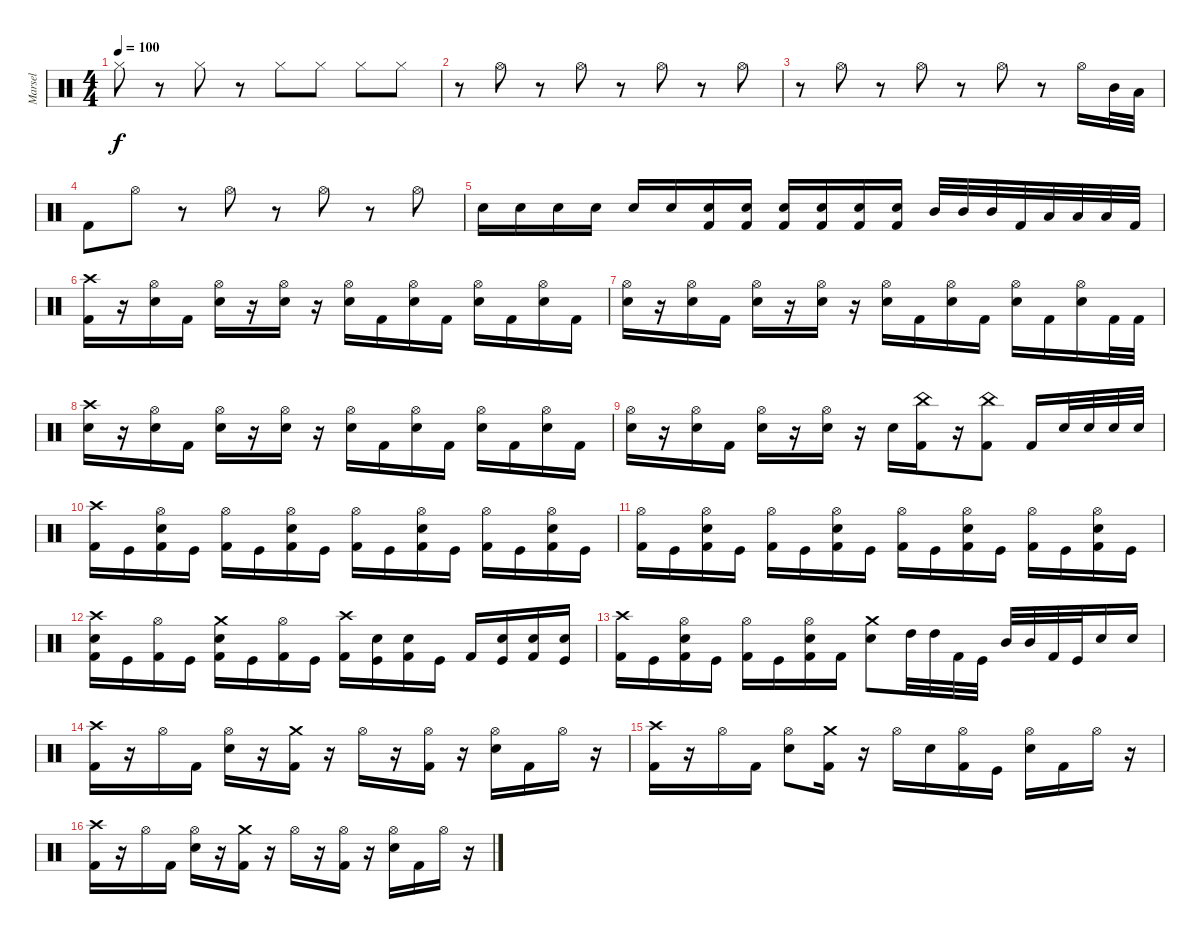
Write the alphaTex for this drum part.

\track ("Marsel" "Marsel") {instrument percussion}
\staff {score}
\articulation defaults
\ts (4 4)
\tempo 100
\clef neutral
\ks c "Hi-Hat (closed)".8{dy f}
r.8 "Hi-Hat (closed)".8 r.8 "Hi-Hat (closed)".8 "Hi-Hat (closed)".8 "Hi-Hat (closed)".8 "Hi-Hat (closed)".8 |
r.8 "Hi-Hat (open)".8 r.8 "Hi-Hat (open)".8 r.8 "Hi-Hat (open)".8 r.8 "Hi-Hat (open)".8 |
r.8 "Hi-Hat (open)".8 r.8 "Hi-Hat (open)".8 r.8 "Hi-Hat (open)".8 r.8 "Hi-Hat (open)".16 "Mid Tom (hit)".32 "Low Floor Tom (hit)".32 |
"Kick (hit) 2".8 "Hi-Hat (open)".8 r.8 "Hi-Hat (open)".8 r.8 "Hi-Hat (open)".8 r.8 "Hi-Hat (open)".8 |
"Snare (hit) 2".16 "Snare (hit) 2".16 "Snare (hit) 2".16 "Snare (hit) 2".16 "Snare (hit) 2".16 "Snare (hit) 2".16 ("Snare (hit) 2" "Kick (hit) 2").16 ("Snare (hit) 2" "Kick (hit) 2").16 ("Snare (hit) 2" "Kick (hit) 2").16 ("Snare (hit) 2" "Kick (hit) 2").16 ("Snare (hit) 2" "Kick (hit) 2").16 ("Snare (hit) 2" "Kick (hit) 2").16 "Mid Tom (hit)".32 "Mid Tom (hit)".32 "Mid Tom (hit)".32 "Kick (hit) 2".32 "Low Tom (hit)".32 "Low Tom (hit)".32 "Low Tom (hit)".32 "Kick (hit) 2".32 |
("Crash high (hit)" "Kick (hit) 2").16 r.16 ("Hi-Hat (open)" "Snare (hit) 2").16 "Kick (hit) 2".16 ("Hi-Hat (open)" "Snare (hit) 2").16 r.16 ("Hi-Hat (open)" "Snare (hit) 2").16 r.16 ("Hi-Hat (open)" "Snare (hit) 2").16 "Kick (hit) 2".16 ("Hi-Hat (open)" "Snare (hit) 2").16 "Kick (hit) 2".16 ("Hi-Hat (open)" "Snare (hit) 2").16 "Kick (hit) 2".16 ("Hi-Hat (open)" "Snare (hit) 2").16 "Kick (hit) 2".16 |
("Hi-Hat (open)" "Snare (hit) 2").16 r.16 ("Hi-Hat (open)" "Snare (hit) 2").16 "Kick (hit) 2".16 ("Hi-Hat (open)" "Snare (hit) 2").16 r.16 ("Hi-Hat (open)" "Snare (hit) 2").16 r.16 ("Hi-Hat (open)" "Snare (hit) 2").16 "Kick (hit) 2".16 ("Hi-Hat (open)" "Snare (hit) 2").16 "Kick (hit) 2".16 ("Hi-Hat (open)" "Snare (hit) 2").16 "Kick (hit) 2".16 ("Hi-Hat (open)" "Snare (hit) 2").16 "Kick (hit) 2".32 "Kick (hit) 2".32 |
("Crash high (hit)" "Snare (hit) 2").16 r.16 ("Hi-Hat (open)" "Snare (hit) 2").16 "Kick (hit) 2".16 ("Hi-Hat (open)" "Snare (hit) 2").16 r.16 ("Hi-Hat (open)" "Snare (hit) 2").16 r.16 ("Hi-Hat (open)" "Snare (hit) 2").16 "Kick (hit) 2".16 ("Hi-Hat (open)" "Snare (hit) 2").16 "Kick (hit) 2".16 ("Hi-Hat (open)" "Snare (hit) 2").16 "Kick (hit) 2".16 ("Hi-Hat (open)" "Snare (hit) 2").16 "Kick (hit) 2".16 |
("Hi-Hat (open)" "Snare (hit) 2").16 r.16 ("Hi-Hat (open)" "Snare (hit) 2").16 "Kick (hit) 2".16 ("Hi-Hat (open)" "Snare (hit) 2").16 r.16 ("Hi-Hat (open)" "Snare (hit) 2").16 r.16 "Snare (hit) 2".16 ("China (hit)" "Kick (hit) 2").16 r.16 ("China (hit)" "Kick (hit) 2").8 "Kick (hit) 2".16 "Snare (hit) 2".32 "Snare (hit) 2".32 "Snare (hit) 2".32 "Snare (hit) 2".32 |
("Crash high (hit)" "Kick (hit) 2").16 "Kick (hit)".16 ("Hi-Hat (open)" "Snare (hit) 2" "Kick (hit) 2").16 "Kick (hit)".16 ("Hi-Hat (open)" "Kick (hit) 2").16 "Kick (hit)".16 ("Hi-Hat (open)" "Snare (hit) 2" "Kick (hit) 2").16 "Kick (hit)".16 ("Hi-Hat (open)" "Kick (hit) 2").16 "Kick (hit)".16 ("Hi-Hat (open)" "Snare (hit) 2" "Kick (hit) 2").16 "Kick (hit)".16 ("Hi-Hat (open)" "Kick (hit) 2").16 "Kick (hit)".16 ("Hi-Hat (open)" "Snare (hit) 2" "Kick (hit) 2").16 "Kick (hit)".16 |
("Hi-Hat (open)" "Kick (hit) 2").16 "Kick (hit)".16 ("Hi-Hat (open)" "Snare (hit) 2" "Kick (hit) 2").16 "Kick (hit)".16 ("Hi-Hat (open)" "Kick (hit) 2").16 "Kick (hit)".16 ("Hi-Hat (open)" "Snare (hit) 2" "Kick (hit) 2").16 "Kick (hit)".16 ("Hi-Hat (open)" "Kick (hit) 2").16 "Kick (hit)".16 ("Hi-Hat (open)" "Snare (hit) 2" "Kick (hit) 2").16 "Kick (hit)".16 ("Hi-Hat (open)" "Kick (hit) 2").16 "Kick (hit)".16 ("Hi-Hat (open)" "Snare (hit) 2" "Kick (hit) 2").16 "Kick (hit)".16 |
("Crash high (hit)" "Snare (hit) 2" "Kick (hit) 2").16 "Kick (hit)".16 ("Hi-Hat (open)" "Kick (hit) 2").16 "Kick (hit)".16 ("Crash medium (hit)" "Snare (hit) 2" "Kick (hit) 2").16 "Kick (hit)".16 ("Hi-Hat (open)" "Kick (hit) 2").16 "Kick (hit)".16 ("Crash high (hit)" "Kick (hit) 2").16 ("Snare (hit) 2" "Kick (hit)").16 ("Snare (hit) 2" "Kick (hit) 2").16 "Kick (hit)".16 "Kick (hit) 2".16 ("Snare (hit) 2" "Kick (hit)").16 ("Snare (hit) 2" "Kick (hit) 2").16 ("Snare (hit) 2" "Kick (hit)").16 |
("Crash high (hit)" "Kick (hit) 2").16 "Kick (hit)".16 ("Hi-Hat (open)" "Snare (hit) 2" "Kick (hit) 2").16 "Kick (hit)".16 ("Hi-Hat (open)" "Kick (hit) 2").16 "Kick (hit)".16 ("Hi-Hat (open)" "Snare (hit) 2" "Kick (hit) 2").16 "Kick (hit) 2".16 ("Crash medium (hit)" "Snare (hit) 2").8 "High Tom (hit)".32 "High Tom (hit)".32 "Kick (hit) 2".32 "Kick (hit)".32 "Mid Tom (hit)".32 "Mid Tom (hit)".32 "Kick (hit) 2".32 "Kick (hit)".32 "Snare (hit) 2".16 "Snare (hit) 2".16 |
("Crash high (hit)" "Kick (hit) 2").16 r.16 "Hi-Hat (open)".16 "Kick (hit) 2".16 ("Hi-Hat (open)" "Snare (hit) 2").16 r.16 ("Crash medium (hit)" "Kick (hit) 2").16 r.16 "Hi-Hat (open)".16 r.16 ("Hi-Hat (open)" "Kick (hit) 2").16 r.16 ("Hi-Hat (open)" "Snare (hit) 2").16 "Kick (hit) 2".16 "Hi-Hat (open)".16 r.16 |
("Crash high (hit)" "Kick (hit) 2").16 r.16 "Hi-Hat (open)".16 "Kick (hit) 2".16 ("Hi-Hat (open)" "Snare (hit) 2").8 ("Crash medium (hit)" "Kick (hit) 2").16 r.16 "Hi-Hat (open)".16 "Snare (hit) 2".16 ("Hi-Hat (open)" "Kick (hit) 2").16 "Kick (hit)".16 ("Hi-Hat (open)" "Snare (hit) 2").16 "Kick (hit) 2".16 "Hi-Hat (open)".16 r.16 |
("Crash high (hit)" "Kick (hit) 2").16 r.16 "Hi-Hat (open)".16 "Kick (hit) 2".16 ("Hi-Hat (open)" "Snare (hit) 2").16 r.16 ("Crash medium (hit)" "Kick (hit) 2").16 r.16 "Hi-Hat (open)".16 r.16 ("Hi-Hat (open)" "Kick (hit) 2").16 r.16 ("Hi-Hat (open)" "Snare (hit) 2").16 "Kick (hit) 2".16 "Hi-Hat (open)".16 r.16
